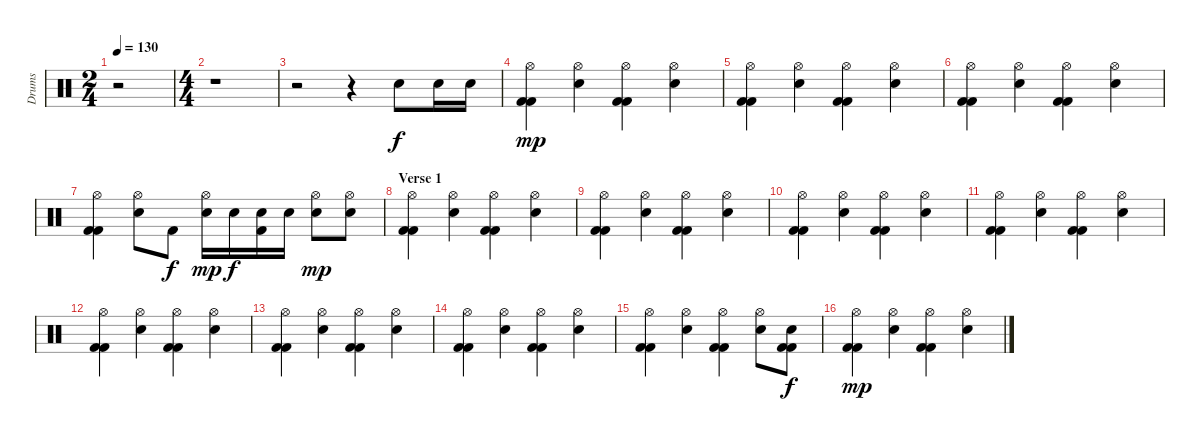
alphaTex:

\track ("Drums" "Drums") {instrument percussion}
\staff {score}
\articulation defaults
\ts (2 4)
\tempo 130
\clef neutral
\ks c
r.2{dy f} |
\ts (4 4)
r.1 |
r.2 r.4 "Snare (hit) 2".8 "Snare (hit) 2".16 "Snare (hit) 2".16 |
("Hi-Hat (open)" "Kick (hit) 2" "Kick (hit) 2").4{dy mp} ("Hi-Hat (open)" "Snare (hit) 2").4 ("Hi-Hat (open)" "Kick (hit) 2" "Kick (hit) 2").4 ("Hi-Hat (open)" "Snare (hit) 2").4 |
("Hi-Hat (open)" "Kick (hit) 2" "Kick (hit) 2").4 ("Hi-Hat (open)" "Snare (hit) 2").4 ("Hi-Hat (open)" "Kick (hit) 2" "Kick (hit) 2").4 ("Hi-Hat (open)" "Snare (hit) 2").4 |
("Hi-Hat (open)" "Kick (hit) 2" "Kick (hit) 2").4 ("Hi-Hat (open)" "Snare (hit) 2").4 ("Hi-Hat (open)" "Kick (hit) 2" "Kick (hit) 2").4 ("Hi-Hat (open)" "Snare (hit) 2").4 |
("Hi-Hat (open)" "Kick (hit) 2" "Kick (hit) 2").4 ("Hi-Hat (open)" "Snare (hit) 2").8 "Kick (hit) 2".8{dy f} ("Hi-Hat (open)" "Snare (hit) 2").16{dy mp} "Snare (hit) 2".16{dy f} ("Snare (hit) 2" "Kick (hit) 2").16 "Snare (hit) 2".16 ("Hi-Hat (open)" "Snare (hit) 2").8{dy mp} ("Hi-Hat (open)" "Snare (hit) 2").8 |
\section ("" "Verse 1")
("Hi-Hat (open)" "Kick (hit) 2" "Kick (hit) 2").4 ("Hi-Hat (open)" "Snare (hit) 2").4 ("Hi-Hat (open)" "Kick (hit) 2" "Kick (hit) 2").4 ("Hi-Hat (open)" "Snare (hit) 2").4 |
("Hi-Hat (open)" "Kick (hit) 2" "Kick (hit) 2").4 ("Hi-Hat (open)" "Snare (hit) 2").4 ("Hi-Hat (open)" "Kick (hit) 2" "Kick (hit) 2").4 ("Hi-Hat (open)" "Snare (hit) 2").4 |
("Hi-Hat (open)" "Kick (hit) 2" "Kick (hit) 2").4 ("Hi-Hat (open)" "Snare (hit) 2").4 ("Hi-Hat (open)" "Kick (hit) 2" "Kick (hit) 2").4 ("Hi-Hat (open)" "Snare (hit) 2").4 |
("Hi-Hat (open)" "Kick (hit) 2" "Kick (hit) 2").4 ("Hi-Hat (open)" "Snare (hit) 2").4 ("Hi-Hat (open)" "Kick (hit) 2" "Kick (hit) 2").4 ("Hi-Hat (open)" "Snare (hit) 2").4 |
("Hi-Hat (open)" "Kick (hit) 2" "Kick (hit) 2").4 ("Hi-Hat (open)" "Snare (hit) 2").4 ("Hi-Hat (open)" "Kick (hit) 2" "Kick (hit) 2").4 ("Hi-Hat (open)" "Snare (hit) 2").4 |
("Hi-Hat (open)" "Kick (hit) 2" "Kick (hit) 2").4 ("Hi-Hat (open)" "Snare (hit) 2").4 ("Hi-Hat (open)" "Kick (hit) 2" "Kick (hit) 2").4 ("Hi-Hat (open)" "Snare (hit) 2").4 |
("Hi-Hat (open)" "Kick (hit) 2" "Kick (hit) 2").4 ("Hi-Hat (open)" "Snare (hit) 2").4 ("Hi-Hat (open)" "Kick (hit) 2" "Kick (hit) 2").4 ("Hi-Hat (open)" "Snare (hit) 2").4 |
("Hi-Hat (open)" "Kick (hit) 2" "Kick (hit) 2").4 ("Hi-Hat (open)" "Snare (hit) 2").4 ("Hi-Hat (open)" "Kick (hit) 2" "Kick (hit) 2").4 ("Hi-Hat (open)" "Snare (hit) 2").8 ("Snare (hit) 2" "Kick (hit) 2" "Kick (hit) 2").8{dy f} |
("Hi-Hat (open)" "Kick (hit) 2" "Kick (hit) 2").4{dy mp} ("Hi-Hat (open)" "Snare (hit) 2").4 ("Hi-Hat (open)" "Kick (hit) 2" "Kick (hit) 2").4 ("Hi-Hat (open)" "Snare (hit) 2").4
